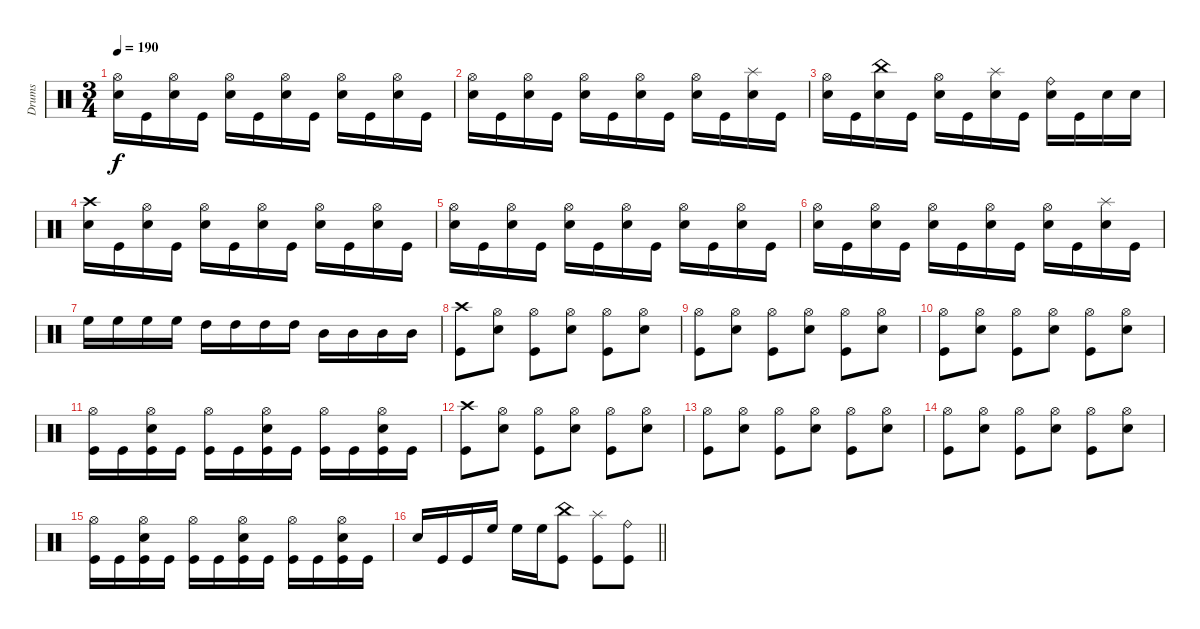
\track ("Drums" "Drums") {instrument percussion}
\staff {score}
\articulation defaults
\ts (3 4)
\tempo 190
\clef neutral
\ks c
("Hi-Hat (open)" "Snare (hit) 2").16{dy f} "Kick (hit)".16 ("Hi-Hat (open)" "Snare (hit) 2").16 "Kick (hit)".16 ("Hi-Hat (open)" "Snare (hit) 2").16 "Kick (hit)".16 ("Hi-Hat (open)" "Snare (hit) 2").16 "Kick (hit)".16 ("Hi-Hat (open)" "Snare (hit) 2").16 "Kick (hit)".16 ("Hi-Hat (open)" "Snare (hit) 2").16 "Kick (hit)".16 |
("Hi-Hat (open)" "Snare (hit) 2").16 "Kick (hit)".16 ("Hi-Hat (open)" "Snare (hit) 2").16 "Kick (hit)".16 ("Hi-Hat (open)" "Snare (hit) 2").16 "Kick (hit)".16 ("Hi-Hat (open)" "Snare (hit) 2").16 "Kick (hit)".16 ("Hi-Hat (open)" "Snare (hit) 2").16 "Kick (hit)".16 ("Splash (hit)" "Snare (hit) 2").16 "Kick (hit)".16 |
("Hi-Hat (open)" "Snare (hit) 2").16 "Kick (hit)".16 ("China (hit)" "Snare (hit) 2").16 "Kick (hit)".16 ("Hi-Hat (open)" "Snare (hit) 2").16 "Kick (hit)".16 ("Splash (hit)" "Snare (hit) 2").16 "Kick (hit)".16 ("Ride (bell)" "Snare (hit) 2").16 "Kick (hit)".16 "Snare (hit) 2".16 "Snare (hit) 2".16 |
("Crash high (hit)" "Snare (hit) 2").16 "Kick (hit)".16 ("Hi-Hat (open)" "Snare (hit) 2").16 "Kick (hit)".16 ("Hi-Hat (open)" "Snare (hit) 2").16 "Kick (hit)".16 ("Hi-Hat (open)" "Snare (hit) 2").16 "Kick (hit)".16 ("Hi-Hat (open)" "Snare (hit) 2").16 "Kick (hit)".16 ("Hi-Hat (open)" "Snare (hit) 2").16 "Kick (hit)".16 |
("Hi-Hat (open)" "Snare (hit) 2").16 "Kick (hit)".16 ("Hi-Hat (open)" "Snare (hit) 2").16 "Kick (hit)".16 ("Hi-Hat (open)" "Snare (hit) 2").16 "Kick (hit)".16 ("Hi-Hat (open)" "Snare (hit) 2").16 "Kick (hit)".16 ("Hi-Hat (open)" "Snare (hit) 2").16 "Kick (hit)".16 ("Hi-Hat (open)" "Snare (hit) 2").16 "Kick (hit)".16 |
("Hi-Hat (open)" "Snare (hit) 2").16 "Kick (hit)".16 ("Hi-Hat (open)" "Snare (hit) 2").16 "Kick (hit)".16 ("Hi-Hat (open)" "Snare (hit) 2").16 "Kick (hit)".16 ("Hi-Hat (open)" "Snare (hit) 2").16 "Kick (hit)".16 ("Hi-Hat (open)" "Snare (hit) 2").16 "Kick (hit)".16 ("Splash (hit)" "Snare (hit) 2").16 "Kick (hit)".16 |
"High Floor Tom (hit)".16 "High Floor Tom (hit)".16 "High Floor Tom (hit)".16 "High Floor Tom (hit)".16 "High Tom (hit)".16 "High Tom (hit)".16 "High Tom (hit)".16 "High Tom (hit)".16 "Mid Tom (hit)".16 "Mid Tom (hit)".16 "Mid Tom (hit)".16 "Mid Tom (hit)".16 |
("Crash high (hit)" "Kick (hit)").8 ("Hi-Hat (open)" "Electric Snare (hit)").8 ("Hi-Hat (open)" "Kick (hit)").8 ("Hi-Hat (open)" "Electric Snare (hit)").8 ("Hi-Hat (open)" "Kick (hit)").8 ("Hi-Hat (open)" "Electric Snare (hit)").8 |
("Hi-Hat (open)" "Kick (hit)").8 ("Hi-Hat (open)" "Electric Snare (hit)").8 ("Hi-Hat (open)" "Kick (hit)").8 ("Hi-Hat (open)" "Electric Snare (hit)").8 ("Hi-Hat (open)" "Kick (hit)").8 ("Hi-Hat (open)" "Electric Snare (hit)").8 |
("Hi-Hat (open)" "Kick (hit)").8 ("Hi-Hat (open)" "Electric Snare (hit)").8 ("Hi-Hat (open)" "Kick (hit)").8 ("Hi-Hat (open)" "Electric Snare (hit)").8 ("Hi-Hat (open)" "Kick (hit)").8 ("Hi-Hat (open)" "Electric Snare (hit)").8 |
("Hi-Hat (open)" "Kick (hit)").16 "Kick (hit)".16 ("Hi-Hat (open)" "Electric Snare (hit)" "Kick (hit)").16 "Kick (hit)".16 ("Hi-Hat (open)" "Kick (hit)").16 "Kick (hit)".16 ("Hi-Hat (open)" "Electric Snare (hit)" "Kick (hit)").16 "Kick (hit)".16 ("Hi-Hat (open)" "Kick (hit)").16 "Kick (hit)".16 ("Hi-Hat (open)" "Electric Snare (hit)" "Kick (hit)").16 "Kick (hit)".16 |
("Crash high (hit)" "Kick (hit)").8 ("Hi-Hat (open)" "Electric Snare (hit)").8 ("Hi-Hat (open)" "Kick (hit)").8 ("Hi-Hat (open)" "Electric Snare (hit)").8 ("Hi-Hat (open)" "Kick (hit)").8 ("Hi-Hat (open)" "Electric Snare (hit)").8 |
("Hi-Hat (open)" "Kick (hit)").8 ("Hi-Hat (open)" "Electric Snare (hit)").8 ("Hi-Hat (open)" "Kick (hit)").8 ("Hi-Hat (open)" "Electric Snare (hit)").8 ("Hi-Hat (open)" "Kick (hit)").8 ("Hi-Hat (open)" "Electric Snare (hit)").8 |
("Hi-Hat (open)" "Kick (hit)").8 ("Hi-Hat (open)" "Electric Snare (hit)").8 ("Hi-Hat (open)" "Kick (hit)").8 ("Hi-Hat (open)" "Electric Snare (hit)").8 ("Hi-Hat (open)" "Kick (hit)").8 ("Hi-Hat (open)" "Electric Snare (hit)").8 |
("Hi-Hat (open)" "Kick (hit)").16 "Kick (hit)".16 ("Hi-Hat (open)" "Electric Snare (hit)" "Kick (hit)").16 "Kick (hit)".16 ("Hi-Hat (open)" "Kick (hit)").16 "Kick (hit)".16 ("Hi-Hat (open)" "Electric Snare (hit)" "Kick (hit)").16 "Kick (hit)".16 ("Hi-Hat (open)" "Kick (hit)").16 "Kick (hit)".16 ("Hi-Hat (open)" "Electric Snare (hit)" "Kick (hit)").16 "Kick (hit)".16 |
\barLineRight lightlight "Electric Snare (hit)".16 "Kick (hit)".16 "Kick (hit)".16 "High Floor Tom (hit)".16 "High Floor Tom (hit)".16 "High Floor Tom (hit)".16
("China (hit)" "Kick (hit)").8 ("Splash (hit)" "Kick (hit)").8 ("Ride (bell)" "Kick (hit)").8
